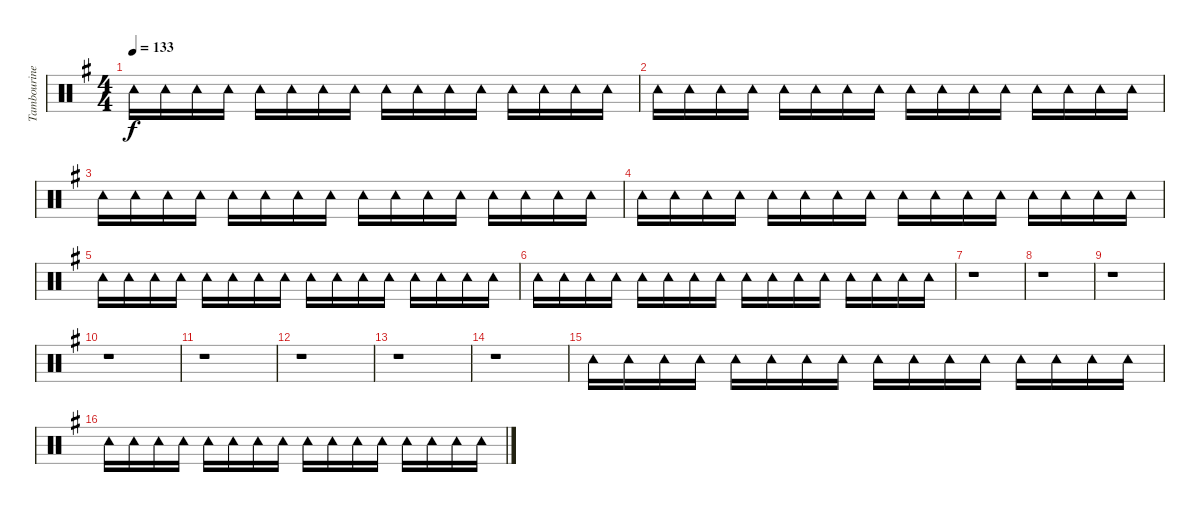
\track ("Tambourine" "Tambourine") {instrument percussion}
\staff {score}
\articulation defaults
\ts (4 4)
\tempo 133
\clef neutral
\ks g "Tambourine (hit)".16{dy f} "Tambourine (hit)".16 "Tambourine (hit)".16 "Tambourine (hit)".16 "Tambourine (hit)".16 "Tambourine (hit)".16 "Tambourine (hit)".16 "Tambourine (hit)".16 "Tambourine (hit)".16 "Tambourine (hit)".16 "Tambourine (hit)".16 "Tambourine (hit)".16 "Tambourine (hit)".16 "Tambourine (hit)".16 "Tambourine (hit)".16 "Tambourine (hit)".16
|
"Tambourine (hit)".16 "Tambourine (hit)".16 "Tambourine (hit)".16 "Tambourine (hit)".16 "Tambourine (hit)".16 "Tambourine (hit)".16 "Tambourine (hit)".16 "Tambourine (hit)".16 "Tambourine (hit)".16 "Tambourine (hit)".16 "Tambourine (hit)".16 "Tambourine (hit)".16 "Tambourine (hit)".16 "Tambourine (hit)".16 "Tambourine (hit)".16 "Tambourine (hit)".16 |
"Tambourine (hit)".16 "Tambourine (hit)".16 "Tambourine (hit)".16 "Tambourine (hit)".16 "Tambourine (hit)".16 "Tambourine (hit)".16 "Tambourine (hit)".16 "Tambourine (hit)".16 "Tambourine (hit)".16 "Tambourine (hit)".16 "Tambourine (hit)".16 "Tambourine (hit)".16 "Tambourine (hit)".16 "Tambourine (hit)".16 "Tambourine (hit)".16 "Tambourine (hit)".16 |
"Tambourine (hit)".16 "Tambourine (hit)".16 "Tambourine (hit)".16 "Tambourine (hit)".16 "Tambourine (hit)".16 "Tambourine (hit)".16 "Tambourine (hit)".16 "Tambourine (hit)".16 "Tambourine (hit)".16 "Tambourine (hit)".16 "Tambourine (hit)".16 "Tambourine (hit)".16 "Tambourine (hit)".16 "Tambourine (hit)".16 "Tambourine (hit)".16 "Tambourine (hit)".16 |
"Tambourine (hit)".16 "Tambourine (hit)".16 "Tambourine (hit)".16 "Tambourine (hit)".16 "Tambourine (hit)".16 "Tambourine (hit)".16 "Tambourine (hit)".16 "Tambourine (hit)".16 "Tambourine (hit)".16 "Tambourine (hit)".16 "Tambourine (hit)".16 "Tambourine (hit)".16 "Tambourine (hit)".16 "Tambourine (hit)".16 "Tambourine (hit)".16 "Tambourine (hit)".16 |
"Tambourine (hit)".16 "Tambourine (hit)".16 "Tambourine (hit)".16 "Tambourine (hit)".16 "Tambourine (hit)".16 "Tambourine (hit)".16 "Tambourine (hit)".16 "Tambourine (hit)".16 "Tambourine (hit)".16 "Tambourine (hit)".16 "Tambourine (hit)".16 "Tambourine (hit)".16 "Tambourine (hit)".16 "Tambourine (hit)".16 "Tambourine (hit)".16 "Tambourine (hit)".16 |
r.1 |
r.1 |
r.1 |
r.1 |
r.1 |
r.1 |
r.1 |
r.1 |
"Tambourine (hit)".16 "Tambourine (hit)".16 "Tambourine (hit)".16 "Tambourine (hit)".16 "Tambourine (hit)".16 "Tambourine (hit)".16 "Tambourine (hit)".16 "Tambourine (hit)".16 "Tambourine (hit)".16 "Tambourine (hit)".16 "Tambourine (hit)".16 "Tambourine (hit)".16 "Tambourine (hit)".16 "Tambourine (hit)".16 "Tambourine (hit)".16 "Tambourine (hit)".16 |
"Tambourine (hit)".16 "Tambourine (hit)".16 "Tambourine (hit)".16 "Tambourine (hit)".16 "Tambourine (hit)".16 "Tambourine (hit)".16 "Tambourine (hit)".16 "Tambourine (hit)".16 "Tambourine (hit)".16 "Tambourine (hit)".16 "Tambourine (hit)".16 "Tambourine (hit)".16 "Tambourine (hit)".16 "Tambourine (hit)".16 "Tambourine (hit)".16 "Tambourine (hit)".16
